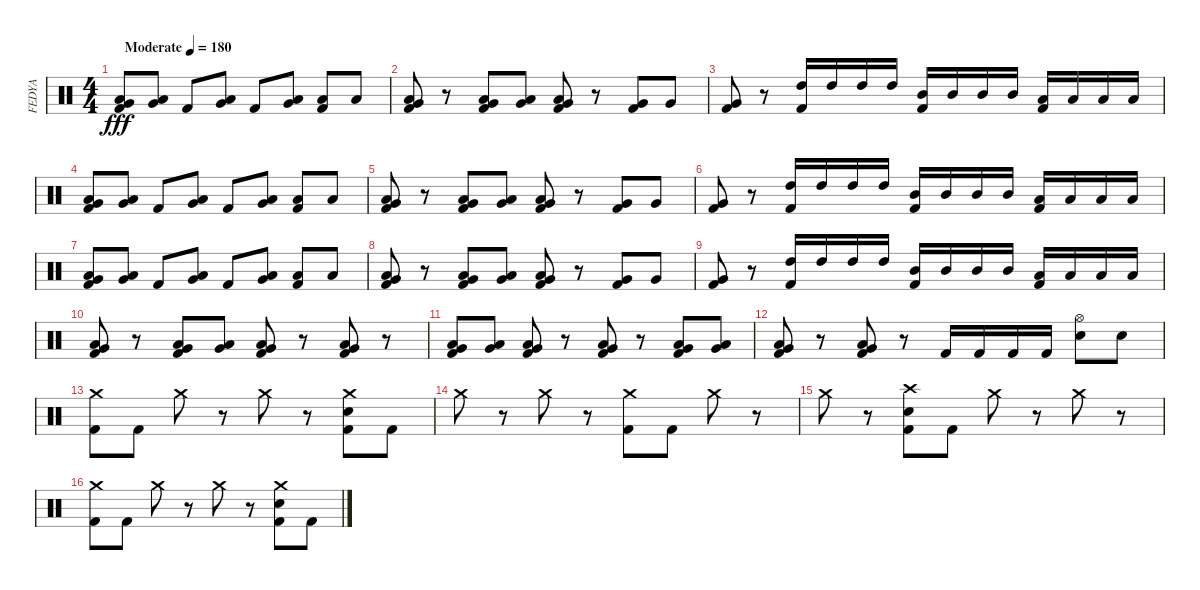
\track ("FEDYA" "FEDYA") {instrument percussion}
\staff {score}
\articulation defaults
\ts (4 4)
\tempo (180 "Moderate")
\clef neutral
\ks c
("Low Tom (hit)" "Very Low Tom (hit)" "Kick (hit) 2").8{dy fff} ("Low Tom (hit)" "Very Low Tom (hit)").8 "Kick (hit) 2".8 ("Low Tom (hit)" "Very Low Tom (hit)").8 "Kick (hit) 2".8 ("Low Tom (hit)" "Very Low Tom (hit)").8 ("Low Tom (hit)" "Kick (hit) 2").8 "Low Tom (hit)".8 |
("Low Tom (hit)" "Very Low Tom (hit)" "Kick (hit) 2").8 r.8 ("Low Tom (hit)" "Very Low Tom (hit)" "Kick (hit) 2").8 ("Low Tom (hit)" "Very Low Tom (hit)").8 ("Low Tom (hit)" "Very Low Tom (hit)" "Kick (hit) 2").8 r.8 ("Very Low Tom (hit)" "Kick (hit) 2").8 "Very Low Tom (hit)".8 |
("Very Low Tom (hit)" "Kick (hit) 2").8 r.8 ("High Tom (hit)" "Kick (hit) 2").16 "High Tom (hit)".16 "High Tom (hit)".16 "High Tom (hit)".16 ("Mid Tom (hit)" "Kick (hit) 2").16 "Mid Tom (hit)".16 "Mid Tom (hit)".16 "Mid Tom (hit)".16 ("Low Tom (hit)" "Kick (hit) 2").16 "Low Tom (hit)".16 "Low Tom (hit)".16 "Low Tom (hit)".16 |
("Low Tom (hit)" "Very Low Tom (hit)" "Kick (hit) 2").8 ("Low Tom (hit)" "Very Low Tom (hit)").8 "Kick (hit) 2".8 ("Low Tom (hit)" "Very Low Tom (hit)").8 "Kick (hit) 2".8 ("Low Tom (hit)" "Very Low Tom (hit)").8 ("Low Tom (hit)" "Kick (hit) 2").8 "Low Tom (hit)".8 |
("Low Tom (hit)" "Very Low Tom (hit)" "Kick (hit) 2").8 r.8 ("Low Tom (hit)" "Very Low Tom (hit)" "Kick (hit) 2").8 ("Low Tom (hit)" "Very Low Tom (hit)").8 ("Low Tom (hit)" "Very Low Tom (hit)" "Kick (hit) 2").8 r.8 ("Very Low Tom (hit)" "Kick (hit) 2").8 "Very Low Tom (hit)".8 |
("Very Low Tom (hit)" "Kick (hit) 2").8 r.8 ("High Tom (hit)" "Kick (hit) 2").16 "High Tom (hit)".16 "High Tom (hit)".16 "High Tom (hit)".16 ("Mid Tom (hit)" "Kick (hit) 2").16 "Mid Tom (hit)".16 "Mid Tom (hit)".16 "Mid Tom (hit)".16 ("Low Tom (hit)" "Kick (hit) 2").16 "Low Tom (hit)".16 "Low Tom (hit)".16 "Low Tom (hit)".16 |
("Low Tom (hit)" "Very Low Tom (hit)" "Kick (hit) 2").8 ("Low Tom (hit)" "Very Low Tom (hit)").8 "Kick (hit) 2".8 ("Low Tom (hit)" "Very Low Tom (hit)").8 "Kick (hit) 2".8 ("Low Tom (hit)" "Very Low Tom (hit)").8 ("Low Tom (hit)" "Kick (hit) 2").8 "Low Tom (hit)".8 |
("Low Tom (hit)" "Very Low Tom (hit)" "Kick (hit) 2").8 r.8 ("Low Tom (hit)" "Very Low Tom (hit)" "Kick (hit) 2").8 ("Low Tom (hit)" "Very Low Tom (hit)").8 ("Low Tom (hit)" "Very Low Tom (hit)" "Kick (hit) 2").8 r.8 ("Very Low Tom (hit)" "Kick (hit) 2").8 "Very Low Tom (hit)".8 |
("Very Low Tom (hit)" "Kick (hit) 2").8 r.8 ("High Tom (hit)" "Kick (hit) 2").16 "High Tom (hit)".16 "High Tom (hit)".16 "High Tom (hit)".16 ("Mid Tom (hit)" "Kick (hit) 2").16 "Mid Tom (hit)".16 "Mid Tom (hit)".16 "Mid Tom (hit)".16 ("Low Tom (hit)" "Kick (hit) 2").16 "Low Tom (hit)".16 "Low Tom (hit)".16 "Low Tom (hit)".16 |
("Low Tom (hit)" "Very Low Tom (hit)" "Kick (hit) 2").8 r.8 ("Low Tom (hit)" "Very Low Tom (hit)" "Kick (hit) 2").8 ("Low Tom (hit)" "Very Low Tom (hit)").8 ("Low Tom (hit)" "Very Low Tom (hit)" "Kick (hit) 2").8 r.8 ("Low Tom (hit)" "Very Low Tom (hit)" "Kick (hit) 2").8 r.8 |
("Low Tom (hit)" "Very Low Tom (hit)" "Kick (hit) 2").8 ("Low Tom (hit)" "Very Low Tom (hit)").8 ("Low Tom (hit)" "Very Low Tom (hit)" "Kick (hit) 2").8 r.8 ("Low Tom (hit)" "Very Low Tom (hit)" "Kick (hit) 2").8 r.8 ("Low Tom (hit)" "Very Low Tom (hit)" "Kick (hit) 2").8 ("Low Tom (hit)" "Very Low Tom (hit)").8 |
("Low Tom (hit)" "Very Low Tom (hit)" "Kick (hit) 2").8 r.8 ("Low Tom (hit)" "Very Low Tom (hit)" "Kick (hit) 2").8 r.8 "Kick (hit) 2".16 "Kick (hit) 2".16 "Kick (hit) 2".16 "Kick (hit) 2".16 ("Hi-Hat (open)" "Snare (hit) 2").8 "Snare (hit) 2".8 |
("Crash medium (hit)" "Kick (hit) 2").8 "Kick (hit) 2".8 "Crash medium (hit)".8 r.8 "Crash medium (hit)".8 r.8 ("Crash medium (hit)" "Snare (hit) 2" "Kick (hit) 2").8 "Kick (hit) 2".8 |
"Crash medium (hit)".8 r.8 "Crash medium (hit)".8 r.8 ("Crash medium (hit)" "Kick (hit) 2").8 "Kick (hit) 2".8 "Crash medium (hit)".8 r.8 |
"Crash medium (hit)".8 r.8 ("Crash high (hit)" "Snare (hit) 2" "Kick (hit) 2").8 "Kick (hit) 2".8 "Crash medium (hit)".8 r.8 "Crash medium (hit)".8 r.8 |
("Crash medium (hit)" "Kick (hit) 2").8 "Kick (hit) 2".8 "Crash medium (hit)".8 r.8 "Crash medium (hit)".8 r.8 ("Crash medium (hit)" "Snare (hit) 2" "Kick (hit) 2").8 "Kick (hit) 2".8
